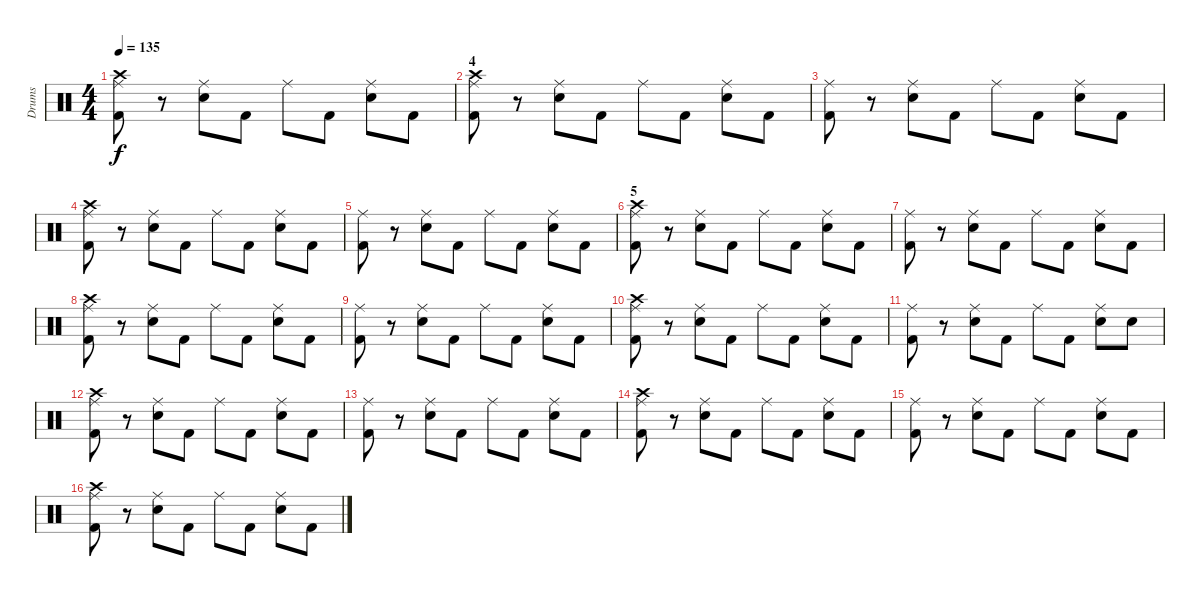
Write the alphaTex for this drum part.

\track ("Drums" "Drums") {instrument percussion}
\staff {score}
\articulation defaults
\ts (4 4)
\tempo 135
\clef neutral
\ks c
("Ride (middle)" "Kick (hit) 2" "Crash high (hit)").8{dy f} r.8 ("Ride (middle)" "Snare (hit) 2").8 "Kick (hit) 2".8 "Ride (middle)".8 "Kick (hit) 2".8 ("Ride (middle)" "Snare (hit) 2").8 "Kick (hit) 2".8 |
\section ("" "4")
("Ride (middle)" "Kick (hit) 2" "Crash high (hit)").8 r.8 ("Ride (middle)" "Snare (hit) 2").8 "Kick (hit) 2".8 "Ride (middle)".8 "Kick (hit) 2".8 ("Ride (middle)" "Snare (hit) 2").8 "Kick (hit) 2".8 |
("Ride (middle)" "Kick (hit) 2").8 r.8 ("Ride (middle)" "Snare (hit) 2").8 "Kick (hit) 2".8 "Ride (middle)".8 "Kick (hit) 2".8 ("Ride (middle)" "Snare (hit) 2").8 "Kick (hit) 2".8 |
("Ride (middle)" "Kick (hit) 2" "Crash high (hit)").8 r.8 ("Ride (middle)" "Snare (hit) 2").8 "Kick (hit) 2".8 "Ride (middle)".8 "Kick (hit) 2".8 ("Ride (middle)" "Snare (hit) 2").8 "Kick (hit) 2".8 |
("Ride (middle)" "Kick (hit) 2").8 r.8 ("Ride (middle)" "Snare (hit) 2").8 "Kick (hit) 2".8 "Ride (middle)".8 "Kick (hit) 2".8 ("Ride (middle)" "Snare (hit) 2").8 "Kick (hit) 2".8 |
\section ("" "5")
("Ride (middle)" "Kick (hit) 2" "Crash high (hit)").8 r.8 ("Ride (middle)" "Snare (hit) 2").8 "Kick (hit) 2".8 "Ride (middle)".8 "Kick (hit) 2".8 ("Ride (middle)" "Snare (hit) 2").8 "Kick (hit) 2".8 |
("Ride (middle)" "Kick (hit) 2").8 r.8 ("Ride (middle)" "Snare (hit) 2").8 "Kick (hit) 2".8 "Ride (middle)".8 "Kick (hit) 2".8 ("Ride (middle)" "Snare (hit) 2").8 "Kick (hit) 2".8 |
("Ride (middle)" "Kick (hit) 2" "Crash high (hit)").8 r.8 ("Ride (middle)" "Snare (hit) 2").8 "Kick (hit) 2".8 "Ride (middle)".8 "Kick (hit) 2".8 ("Ride (middle)" "Snare (hit) 2").8 "Kick (hit) 2".8 |
("Ride (middle)" "Kick (hit) 2").8 r.8 ("Ride (middle)" "Snare (hit) 2").8 "Kick (hit) 2".8 "Ride (middle)".8 "Kick (hit) 2".8 ("Ride (middle)" "Snare (hit) 2").8 "Kick (hit) 2".8 |
("Ride (middle)" "Kick (hit) 2" "Crash high (hit)").8 r.8 ("Ride (middle)" "Snare (hit) 2").8 "Kick (hit) 2".8 "Ride (middle)".8 "Kick (hit) 2".8 ("Ride (middle)" "Snare (hit) 2").8 "Kick (hit) 2".8 |
("Ride (middle)" "Kick (hit) 2").8 r.8 ("Ride (middle)" "Snare (hit) 2").8 "Kick (hit) 2".8 "Ride (middle)".8 "Kick (hit) 2".8 ("Ride (middle)" "Snare (hit) 2").8 "Snare (hit) 2".8 |
("Ride (middle)" "Kick (hit) 2" "Crash high (hit)").8 r.8 ("Ride (middle)" "Snare (hit) 2").8 "Kick (hit) 2".8 "Ride (middle)".8 "Kick (hit) 2".8 ("Ride (middle)" "Snare (hit) 2").8 "Kick (hit) 2".8 |
("Ride (middle)" "Kick (hit) 2").8 r.8 ("Ride (middle)" "Snare (hit) 2").8 "Kick (hit) 2".8 "Ride (middle)".8 "Kick (hit) 2".8 ("Ride (middle)" "Snare (hit) 2").8 "Kick (hit) 2".8 |
("Ride (middle)" "Kick (hit) 2" "Crash high (hit)").8 r.8 ("Ride (middle)" "Snare (hit) 2").8 "Kick (hit) 2".8 "Ride (middle)".8 "Kick (hit) 2".8 ("Ride (middle)" "Snare (hit) 2").8 "Kick (hit) 2".8 |
("Ride (middle)" "Kick (hit) 2").8 r.8 ("Ride (middle)" "Snare (hit) 2").8 "Kick (hit) 2".8 "Ride (middle)".8 "Kick (hit) 2".8 ("Ride (middle)" "Snare (hit) 2").8 "Kick (hit) 2".8 |
("Ride (middle)" "Kick (hit) 2" "Crash high (hit)").8 r.8 ("Ride (middle)" "Snare (hit) 2").8 "Kick (hit) 2".8 "Ride (middle)".8 "Kick (hit) 2".8 ("Ride (middle)" "Snare (hit) 2").8 "Kick (hit) 2".8
